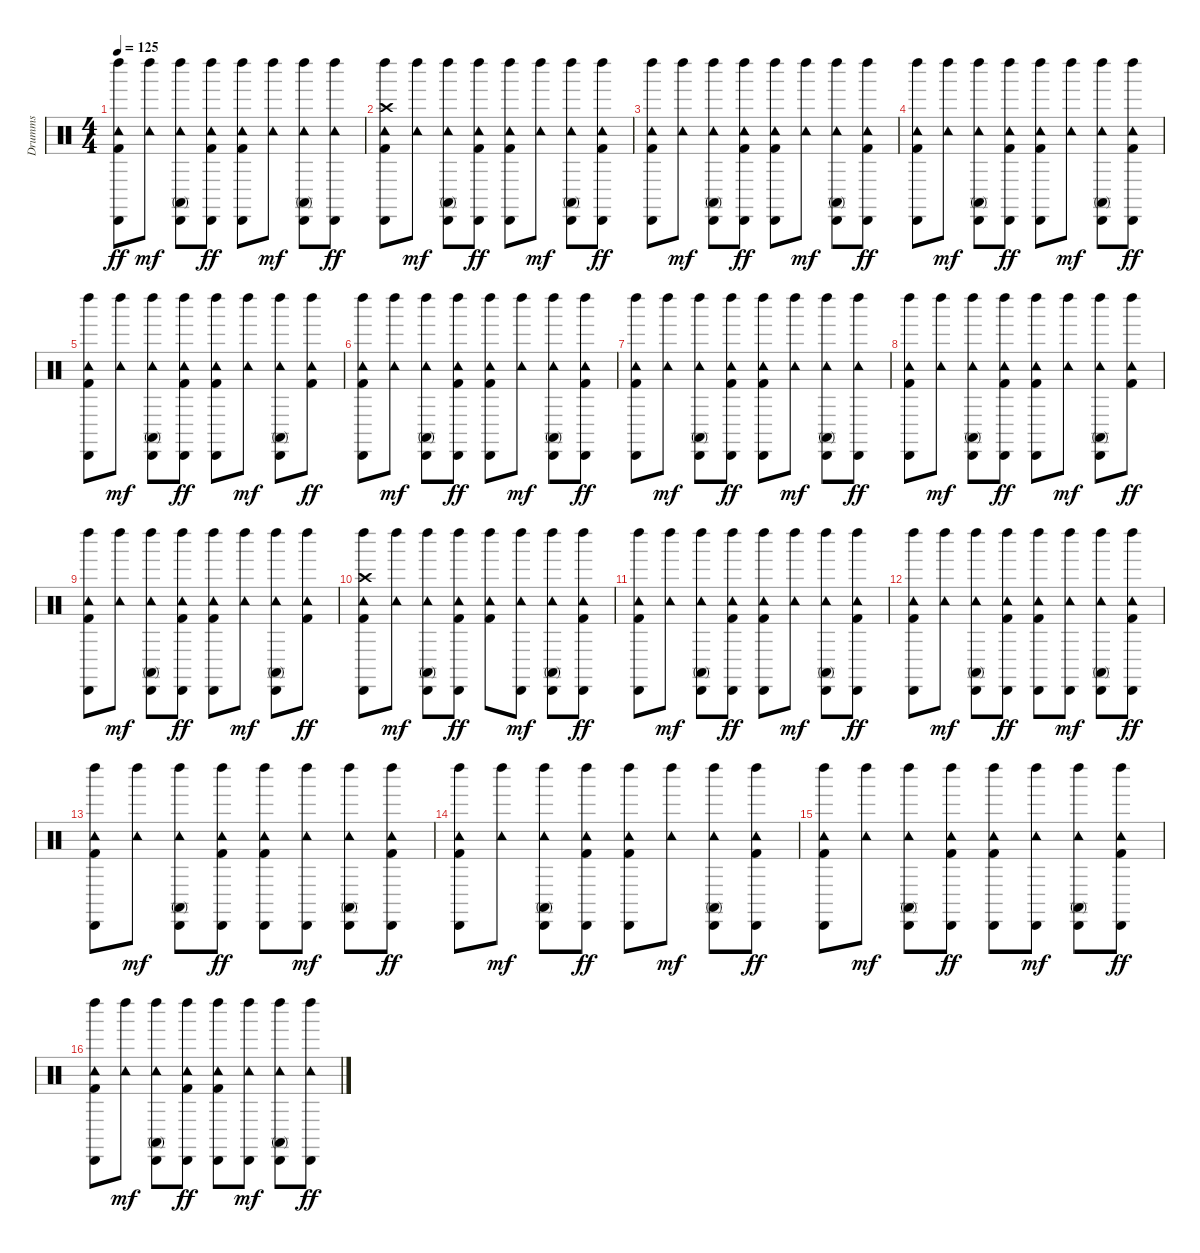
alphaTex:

\track ("Drumms" "Drumms") {instrument percussion}
\staff {score}
\articulation defaults
\ts (4 4)
\tempo 125
\clef neutral
\ks c
("Kick (hit) 2" "Tambourine (hit)" "Cabasa (hit)" "Left Maraca (hit)").8{dy ff} ("Tambourine (hit)" "Left Maraca (hit)").8{dy mf} ("Conga high (mute)" "Tambourine (hit)" "Cabasa (hit)" "Left Maraca (hit)").8 ("Kick (hit) 2" "Tambourine (hit)" "Cabasa (hit)" "Left Maraca (hit)").8{dy ff} ("Kick (hit) 2" "Tambourine (hit)" "Cabasa (hit)" "Left Maraca (hit)").8 ("Tambourine (hit)" "Left Maraca (hit)").8{dy mf} ("Conga high (mute)" "Tambourine (hit)" "Cabasa (hit)" "Left Maraca (hit)").8 ("Tambourine (hit)" "Left Maraca (hit)" "Cabasa (hit)").8{dy ff} |
("Kick (hit) 2" "Tambourine (hit)" "Cabasa (hit)" "Left Maraca (hit)" "Crash high (hit)").8 ("Tambourine (hit)" "Left Maraca (hit)").8{dy mf} ("Conga high (mute)" "Tambourine (hit)" "Cabasa (hit)" "Left Maraca (hit)").8 ("Kick (hit) 2" "Tambourine (hit)" "Cabasa (hit)" "Left Maraca (hit)").8{dy ff} ("Kick (hit) 2" "Tambourine (hit)" "Cabasa (hit)" "Left Maraca (hit)").8 ("Tambourine (hit)" "Left Maraca (hit)").8{dy mf} ("Conga high (mute)" "Tambourine (hit)" "Cabasa (hit)" "Left Maraca (hit)").8 ("Tambourine (hit)" "Left Maraca (hit)" "Cabasa (hit)" "Kick (hit) 2").8{dy ff} |
("Kick (hit) 2" "Tambourine (hit)" "Cabasa (hit)" "Left Maraca (hit)").8 ("Tambourine (hit)" "Left Maraca (hit)").8{dy mf} ("Conga high (mute)" "Tambourine (hit)" "Cabasa (hit)" "Left Maraca (hit)").8 ("Kick (hit) 2" "Tambourine (hit)" "Cabasa (hit)" "Left Maraca (hit)").8{dy ff} ("Kick (hit) 2" "Tambourine (hit)" "Cabasa (hit)" "Left Maraca (hit)").8 ("Tambourine (hit)" "Left Maraca (hit)").8{dy mf} ("Conga high (mute)" "Tambourine (hit)" "Cabasa (hit)" "Left Maraca (hit)").8 ("Tambourine (hit)" "Left Maraca (hit)" "Cabasa (hit)" "Kick (hit) 2").8{dy ff} |
("Kick (hit) 2" "Tambourine (hit)" "Cabasa (hit)" "Left Maraca (hit)").8 ("Tambourine (hit)" "Left Maraca (hit)").8{dy mf} ("Conga high (mute)" "Tambourine (hit)" "Cabasa (hit)" "Left Maraca (hit)").8 ("Kick (hit) 2" "Tambourine (hit)" "Cabasa (hit)" "Left Maraca (hit)").8{dy ff} ("Kick (hit) 2" "Tambourine (hit)" "Cabasa (hit)" "Left Maraca (hit)").8 ("Tambourine (hit)" "Left Maraca (hit)").8{dy mf} ("Conga high (mute)" "Tambourine (hit)" "Cabasa (hit)" "Left Maraca (hit)").8 ("Tambourine (hit)" "Left Maraca (hit)" "Cabasa (hit)" "Kick (hit) 2").8{dy ff} |
("Kick (hit) 2" "Tambourine (hit)" "Cabasa (hit)" "Left Maraca (hit)").8 ("Tambourine (hit)" "Left Maraca (hit)").8{dy mf} ("Conga high (mute)" "Tambourine (hit)" "Cabasa (hit)" "Left Maraca (hit)").8 ("Kick (hit) 2" "Tambourine (hit)" "Cabasa (hit)" "Left Maraca (hit)").8{dy ff} ("Kick (hit) 2" "Tambourine (hit)" "Cabasa (hit)" "Left Maraca (hit)").8 ("Tambourine (hit)" "Left Maraca (hit)").8{dy mf} ("Conga high (mute)" "Tambourine (hit)" "Cabasa (hit)" "Left Maraca (hit)").8 ("Tambourine (hit)" "Left Maraca (hit)" "Kick (hit) 2").8{dy ff} |
("Kick (hit) 2" "Tambourine (hit)" "Cabasa (hit)" "Left Maraca (hit)").8 ("Tambourine (hit)" "Left Maraca (hit)").8{dy mf} ("Conga high (mute)" "Tambourine (hit)" "Cabasa (hit)" "Left Maraca (hit)").8 ("Kick (hit) 2" "Tambourine (hit)" "Cabasa (hit)" "Left Maraca (hit)").8{dy ff} ("Kick (hit) 2" "Tambourine (hit)" "Cabasa (hit)" "Left Maraca (hit)").8 ("Tambourine (hit)" "Left Maraca (hit)").8{dy mf} ("Conga high (mute)" "Tambourine (hit)" "Cabasa (hit)" "Left Maraca (hit)").8 ("Tambourine (hit)" "Left Maraca (hit)" "Cabasa (hit)" "Kick (hit) 2").8{dy ff} |
("Kick (hit) 2" "Tambourine (hit)" "Cabasa (hit)" "Left Maraca (hit)").8 ("Tambourine (hit)" "Left Maraca (hit)").8{dy mf} ("Conga high (mute)" "Tambourine (hit)" "Cabasa (hit)" "Left Maraca (hit)").8 ("Kick (hit) 2" "Tambourine (hit)" "Cabasa (hit)" "Left Maraca (hit)").8{dy ff} ("Kick (hit) 2" "Tambourine (hit)" "Cabasa (hit)" "Left Maraca (hit)").8 ("Tambourine (hit)" "Left Maraca (hit)").8{dy mf} ("Conga high (mute)" "Tambourine (hit)" "Cabasa (hit)" "Left Maraca (hit)").8 ("Tambourine (hit)" "Left Maraca (hit)" "Cabasa (hit)").8{dy ff} |
("Kick (hit) 2" "Tambourine (hit)" "Cabasa (hit)" "Left Maraca (hit)").8 ("Tambourine (hit)" "Left Maraca (hit)").8{dy mf} ("Conga high (mute)" "Tambourine (hit)" "Cabasa (hit)" "Left Maraca (hit)").8 ("Kick (hit) 2" "Tambourine (hit)" "Cabasa (hit)" "Left Maraca (hit)").8{dy ff} ("Kick (hit) 2" "Tambourine (hit)" "Cabasa (hit)" "Left Maraca (hit)").8 ("Tambourine (hit)" "Left Maraca (hit)").8{dy mf} ("Conga high (mute)" "Tambourine (hit)" "Cabasa (hit)" "Left Maraca (hit)").8 ("Tambourine (hit)" "Left Maraca (hit)" "Kick (hit) 2").8{dy ff} |
("Kick (hit) 2" "Tambourine (hit)" "Cabasa (hit)" "Left Maraca (hit)").8 ("Tambourine (hit)" "Left Maraca (hit)").8{dy mf} ("Conga high (mute)" "Tambourine (hit)" "Cabasa (hit)" "Left Maraca (hit)").8 ("Kick (hit) 2" "Tambourine (hit)" "Cabasa (hit)" "Left Maraca (hit)").8{dy ff} ("Kick (hit) 2" "Tambourine (hit)" "Cabasa (hit)" "Left Maraca (hit)").8 ("Tambourine (hit)" "Left Maraca (hit)").8{dy mf} ("Conga high (mute)" "Tambourine (hit)" "Cabasa (hit)" "Left Maraca (hit)").8 ("Tambourine (hit)" "Left Maraca (hit)" "Kick (hit) 2").8{dy ff} |
("Kick (hit) 2" "Crash high (hit)" "Tambourine (hit)" "Cabasa (hit)" "Left Maraca (hit)").8 ("Tambourine (hit)" "Left Maraca (hit)").8{dy mf} ("Conga high (mute)" "Tambourine (hit)" "Cabasa (hit)" "Left Maraca (hit)").8 ("Kick (hit) 2" "Tambourine (hit)" "Cabasa (hit)" "Left Maraca (hit)").8{dy ff} ("Kick (hit) 2" "Tambourine (hit)" "Left Maraca (hit)").8 ("Tambourine (hit)" "Cabasa (hit)" "Left Maraca (hit)").8{dy mf} ("Conga high (mute)" "Tambourine (hit)" "Cabasa (hit)" "Left Maraca (hit)").8 ("Kick (hit) 2" "Tambourine (hit)" "Cabasa (hit)" "Left Maraca (hit)").8{dy ff} |
("Kick (hit) 2" "Tambourine (hit)" "Cabasa (hit)" "Left Maraca (hit)").8 ("Tambourine (hit)" "Left Maraca (hit)").8{dy mf} ("Conga high (mute)" "Tambourine (hit)" "Cabasa (hit)" "Left Maraca (hit)").8 ("Kick (hit) 2" "Tambourine (hit)" "Cabasa (hit)" "Left Maraca (hit)").8{dy ff} ("Kick (hit) 2" "Tambourine (hit)" "Cabasa (hit)" "Left Maraca (hit)").8 ("Tambourine (hit)" "Left Maraca (hit)").8{dy mf} ("Conga high (mute)" "Tambourine (hit)" "Cabasa (hit)" "Left Maraca (hit)").8 ("Kick (hit) 2" "Tambourine (hit)" "Cabasa (hit)" "Left Maraca (hit)").8{dy ff} |
("Kick (hit) 2" "Tambourine (hit)" "Cabasa (hit)" "Left Maraca (hit)").8 ("Tambourine (hit)" "Left Maraca (hit)").8{dy mf} ("Conga high (mute)" "Tambourine (hit)" "Cabasa (hit)" "Left Maraca (hit)").8 ("Kick (hit) 2" "Tambourine (hit)" "Cabasa (hit)" "Left Maraca (hit)").8{dy ff} ("Kick (hit) 2" "Tambourine (hit)" "Cabasa (hit)" "Left Maraca (hit)").8 ("Tambourine (hit)" "Left Maraca (hit)" "Cabasa (hit)").8{dy mf} ("Conga high (mute)" "Tambourine (hit)" "Cabasa (hit)" "Left Maraca (hit)").8 ("Kick (hit) 2" "Tambourine (hit)" "Cabasa (hit)" "Left Maraca (hit)").8{dy ff} |
("Kick (hit) 2" "Tambourine (hit)" "Cabasa (hit)" "Left Maraca (hit)").8 ("Tambourine (hit)" "Left Maraca (hit)").8{dy mf} ("Conga high (mute)" "Tambourine (hit)" "Cabasa (hit)" "Left Maraca (hit)").8 ("Kick (hit) 2" "Tambourine (hit)" "Cabasa (hit)" "Left Maraca (hit)").8{dy ff} ("Kick (hit) 2" "Tambourine (hit)" "Cabasa (hit)" "Left Maraca (hit)").8 ("Tambourine (hit)" "Left Maraca (hit)" "Cabasa (hit)").8{dy mf} ("Conga high (mute)" "Tambourine (hit)" "Cabasa (hit)" "Left Maraca (hit)").8 ("Kick (hit) 2" "Tambourine (hit)" "Cabasa (hit)" "Left Maraca (hit)").8{dy ff} |
("Kick (hit) 2" "Tambourine (hit)" "Cabasa (hit)" "Left Maraca (hit)").8 ("Tambourine (hit)" "Left Maraca (hit)").8{dy mf} ("Conga high (mute)" "Tambourine (hit)" "Cabasa (hit)" "Left Maraca (hit)").8 ("Kick (hit) 2" "Tambourine (hit)" "Cabasa (hit)" "Left Maraca (hit)").8{dy ff} ("Kick (hit) 2" "Tambourine (hit)" "Cabasa (hit)" "Left Maraca (hit)").8 ("Tambourine (hit)" "Left Maraca (hit)").8{dy mf} ("Conga high (mute)" "Tambourine (hit)" "Cabasa (hit)" "Left Maraca (hit)").8 ("Kick (hit) 2" "Tambourine (hit)" "Cabasa (hit)" "Left Maraca (hit)").8{dy ff} |
("Kick (hit) 2" "Tambourine (hit)" "Cabasa (hit)" "Left Maraca (hit)").8 ("Tambourine (hit)" "Left Maraca (hit)").8{dy mf} ("Conga high (mute)" "Tambourine (hit)" "Cabasa (hit)" "Left Maraca (hit)").8 ("Kick (hit) 2" "Tambourine (hit)" "Cabasa (hit)" "Left Maraca (hit)").8{dy ff} ("Kick (hit) 2" "Tambourine (hit)" "Cabasa (hit)" "Left Maraca (hit)").8 ("Tambourine (hit)" "Left Maraca (hit)" "Cabasa (hit)").8{dy mf} ("Conga high (mute)" "Tambourine (hit)" "Cabasa (hit)" "Left Maraca (hit)").8 ("Kick (hit) 2" "Tambourine (hit)" "Cabasa (hit)" "Left Maraca (hit)").8{dy ff} |
("Kick (hit) 2" "Tambourine (hit)" "Cabasa (hit)" "Left Maraca (hit)").8 ("Tambourine (hit)" "Left Maraca (hit)").8{dy mf} ("Conga high (mute)" "Tambourine (hit)" "Cabasa (hit)" "Left Maraca (hit)").8 ("Kick (hit) 2" "Tambourine (hit)" "Cabasa (hit)" "Left Maraca (hit)").8{dy ff} ("Kick (hit) 2" "Tambourine (hit)" "Cabasa (hit)" "Left Maraca (hit)").8 ("Tambourine (hit)" "Left Maraca (hit)" "Cabasa (hit)").8{dy mf} ("Conga high (mute)" "Tambourine (hit)" "Cabasa (hit)" "Left Maraca (hit)").8 ("Tambourine (hit)" "Cabasa (hit)" "Left Maraca (hit)").8{dy ff}
